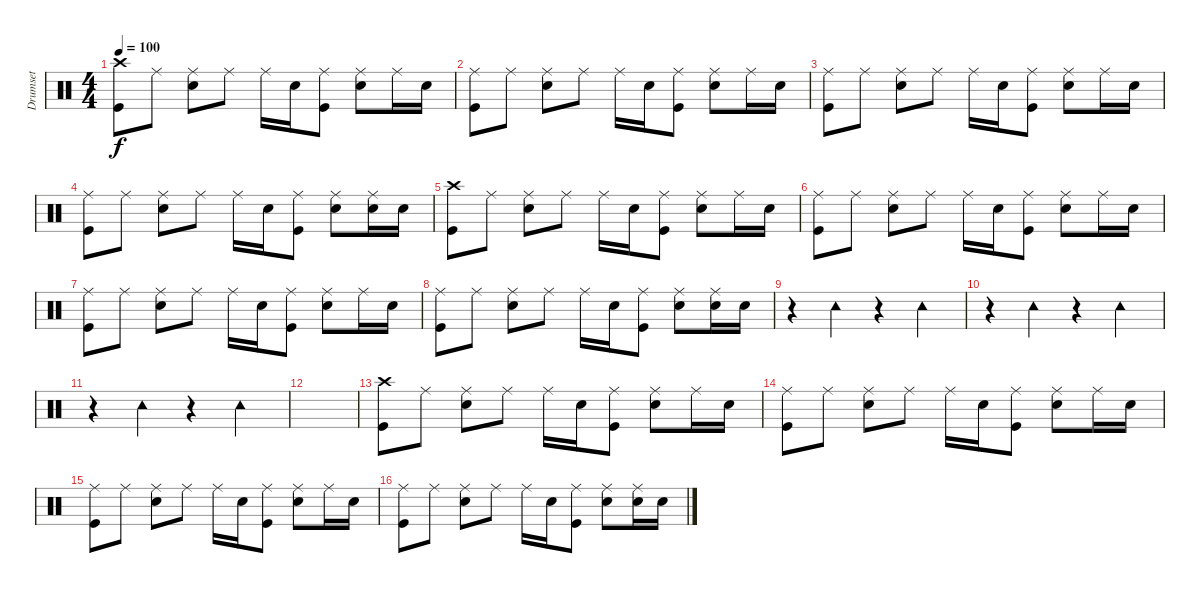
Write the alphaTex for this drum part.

\track ("Drumset" "Drumset") {instrument percussion}
\staff {score}
\articulation defaults
\ts (4 4)
\tempo 100
\clef neutral
\ks c
("Crash high (hit)" "Kick (hit)").8{dy f} "Ride (middle)".8 ("Ride (middle)" "Snare (hit) 2").8 "Ride (middle)".8 "Ride (middle)".16 "Snare (hit) 2".16 ("Ride (middle)" "Kick (hit)").8 ("Ride (middle)" "Snare (hit) 2").8 "Ride (middle)".16 "Snare (hit) 2".16 |
("Ride (middle)" "Kick (hit)").8 "Ride (middle)".8 ("Snare (hit) 2" "Ride (middle)").8 "Ride (middle)".8 "Ride (middle)".16 "Snare (hit) 2".16 ("Ride (middle)" "Kick (hit)").8 ("Ride (middle)" "Snare (hit) 2").8 "Ride (middle)".16 "Snare (hit) 2".16 |
("Ride (middle)" "Kick (hit)").8 "Ride (middle)".8 ("Ride (middle)" "Snare (hit) 2").8 "Ride (middle)".8 "Ride (middle)".16 "Snare (hit) 2".16 ("Ride (middle)" "Kick (hit)").8 ("Ride (middle)" "Snare (hit) 2").8 "Ride (middle)".16 "Snare (hit) 2".16 |
("Ride (middle)" "Kick (hit)").8 "Ride (middle)".8 ("Snare (hit) 2" "Ride (middle)").8 "Ride (middle)".8 "Ride (middle)".16 "Snare (hit) 2".16 ("Ride (middle)" "Kick (hit)").8 ("Ride (middle)" "Snare (hit) 2").8 ("Ride (middle)" "Snare (hit) 2").16 "Snare (hit) 2".16 |
("Crash high (hit)" "Kick (hit)").8 "Ride (middle)".8 ("Ride (middle)" "Snare (hit) 2").8 "Ride (middle)".8 "Ride (middle)".16 "Snare (hit) 2".16 ("Ride (middle)" "Kick (hit)").8 ("Ride (middle)" "Snare (hit) 2").8 "Ride (middle)".16 "Snare (hit) 2".16 |
("Ride (middle)" "Kick (hit)").8 "Ride (middle)".8 ("Snare (hit) 2" "Ride (middle)").8 "Ride (middle)".8 "Ride (middle)".16 "Snare (hit) 2".16 ("Ride (middle)" "Kick (hit)").8 ("Ride (middle)" "Snare (hit) 2").8 "Ride (middle)".16 "Snare (hit) 2".16 |
("Ride (middle)" "Kick (hit)").8 "Ride (middle)".8 ("Ride (middle)" "Snare (hit) 2").8 "Ride (middle)".8 "Ride (middle)".16 "Snare (hit) 2".16 ("Ride (middle)" "Kick (hit)").8 ("Ride (middle)" "Snare (hit) 2").8 "Ride (middle)".16 "Snare (hit) 2".16 |
("Ride (middle)" "Kick (hit)").8 "Ride (middle)".8 ("Snare (hit) 2" "Ride (middle)").8 "Ride (middle)".8 "Ride (middle)".16 "Snare (hit) 2".16 ("Ride (middle)" "Kick (hit)").8 ("Ride (middle)" "Snare (hit) 2").8 ("Ride (middle)" "Snare (hit) 2").16 "Snare (hit) 2".16 |
r.4 "Tambourine (hit)".4 r.4 "Tambourine (hit)".4 |
r.4 "Tambourine (hit)".4 r.4 "Tambourine (hit)".4 |
r.4 "Tambourine (hit)".4 r.4 "Tambourine (hit)".4 |
|
("Crash high (hit)" "Kick (hit)").8 "Ride (middle)".8 ("Ride (middle)" "Snare (hit) 2").8 "Ride (middle)".8 "Ride (middle)".16 "Snare (hit) 2".16 ("Ride (middle)" "Kick (hit)").8 ("Ride (middle)" "Snare (hit) 2").8 "Ride (middle)".16 "Snare (hit) 2".16 |
("Ride (middle)" "Kick (hit)").8 "Ride (middle)".8 ("Snare (hit) 2" "Ride (middle)").8 "Ride (middle)".8 "Ride (middle)".16 "Snare (hit) 2".16 ("Ride (middle)" "Kick (hit)").8 ("Ride (middle)" "Snare (hit) 2").8 "Ride (middle)".16 "Snare (hit) 2".16 |
("Ride (middle)" "Kick (hit)").8 "Ride (middle)".8 ("Ride (middle)" "Snare (hit) 2").8 "Ride (middle)".8 "Ride (middle)".16 "Snare (hit) 2".16 ("Ride (middle)" "Kick (hit)").8 ("Ride (middle)" "Snare (hit) 2").8 "Ride (middle)".16 "Snare (hit) 2".16 |
("Ride (middle)" "Kick (hit)").8 "Ride (middle)".8 ("Snare (hit) 2" "Ride (middle)").8 "Ride (middle)".8 "Ride (middle)".16 "Snare (hit) 2".16 ("Ride (middle)" "Kick (hit)").8 ("Ride (middle)" "Snare (hit) 2").8 ("Ride (middle)" "Snare (hit) 2").16 "Snare (hit) 2".16
